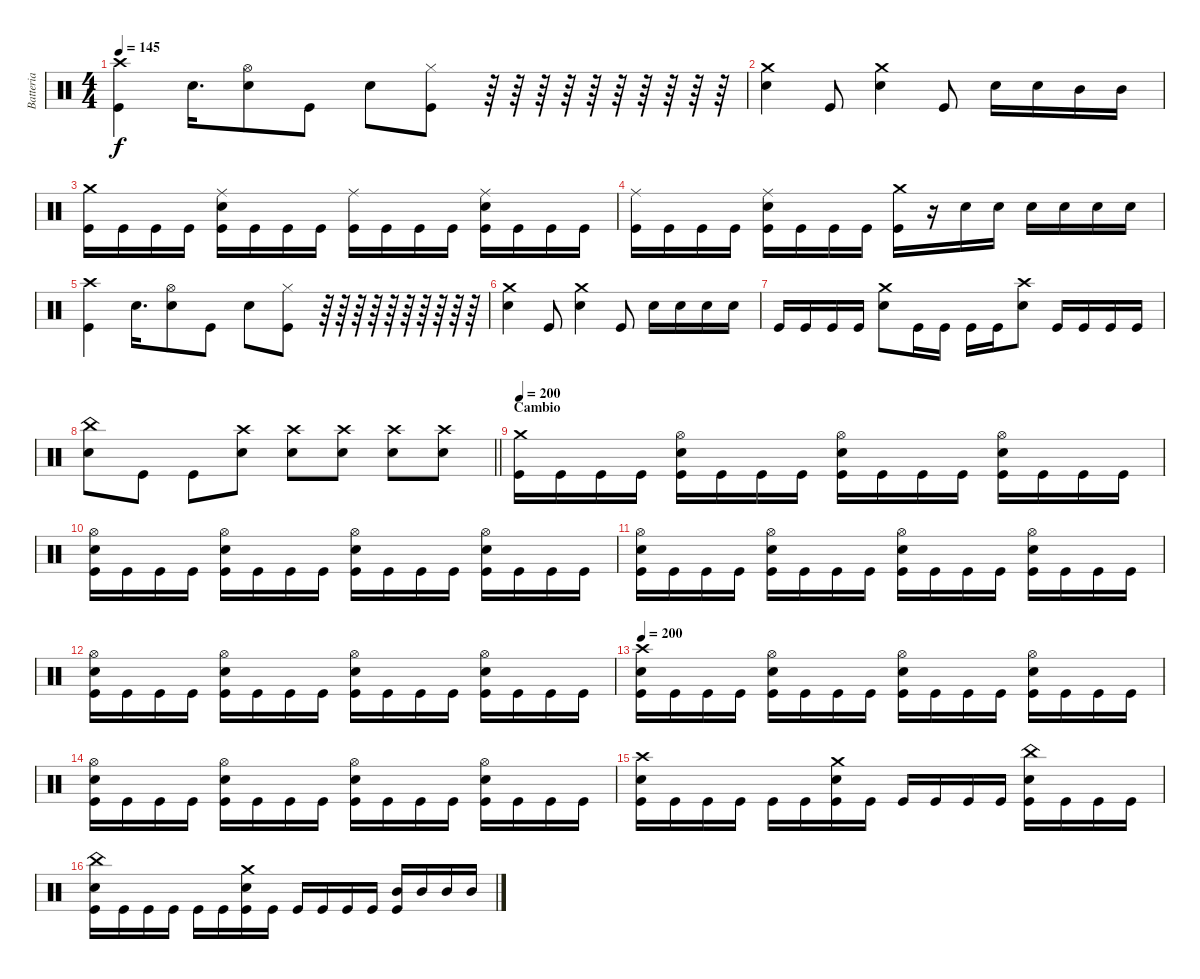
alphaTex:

\track ("Batteria" "Batteria") {instrument percussion}
\staff {score}
\articulation defaults
\ts (4 4)
\tempo 145
\clef neutral
\ks c
("Crash high (hit)" "Kick (hit)").4{dy f} "Electric Snare (hit)".16{d} ("Hi-Hat (open)" "Electric Snare (hit)").8 "Kick (hit)".8 "Electric Snare (hit)".8 ("Hi-Hat (closed)" "Kick (hit)").8 r.64 r.64 r.64 r.64 r.64 r.64 r.64 r.64 r.64 r.64 |
("Crash medium (hit)" "Electric Snare (hit)").4 "Kick (hit)".8 ("Crash medium (hit)" "Electric Snare (hit)").4 "Kick (hit)".8 "Electric Snare (hit)".16 "Electric Snare (hit)".16 "Mid Tom (hit)".16 "Mid Tom (hit)".16 |
("Crash medium (hit)" "Kick (hit)").16 "Kick (hit)".16 "Kick (hit)".16 "Kick (hit)".16 ("Ride (middle)" "Electric Snare (hit)" "Kick (hit)").16 "Kick (hit)".16 "Kick (hit)".16 "Kick (hit)".16 ("Ride (middle)" "Kick (hit)").16 "Kick (hit)".16 "Kick (hit)".16 "Kick (hit)".16 ("Ride (middle)" "Electric Snare (hit)" "Kick (hit)").16 "Kick (hit)".16 "Kick (hit)".16 "Kick (hit)".16 |
("Ride (middle)" "Kick (hit)").16 "Kick (hit)".16 "Kick (hit)".16 "Kick (hit)".16 ("Ride (middle)" "Electric Snare (hit)" "Kick (hit)").16 "Kick (hit)".16 "Kick (hit)".16 "Kick (hit)".16 ("Crash medium (hit)" "Kick (hit)").16 r.16 "Electric Snare (hit)".16 "Electric Snare (hit)".16 "Electric Snare (hit)".16 "Electric Snare (hit)".16 "Electric Snare (hit)".16 "Electric Snare (hit)".16 |
("Crash high (hit)" "Kick (hit)").4 "Electric Snare (hit)".16{d} ("Hi-Hat (open)" "Electric Snare (hit)").8 "Kick (hit)".8 "Electric Snare (hit)".8 ("Hi-Hat (closed)" "Kick (hit)").8 r.64 r.64 r.64 r.64 r.64 r.64 r.64 r.64 r.64 r.64 |
("Crash medium (hit)" "Electric Snare (hit)").4 "Kick (hit)".8 ("Crash medium (hit)" "Electric Snare (hit)").4 "Kick (hit)".8 "Electric Snare (hit)".16 "Electric Snare (hit)".16 "Electric Snare (hit)".16 "Electric Snare (hit)".16 |
"Kick (hit)".16 "Kick (hit)".16 "Kick (hit)".16 "Kick (hit)".16 ("Crash medium (hit)" "Electric Snare (hit)").8 "Kick (hit)".16 "Kick (hit)".16 "Kick (hit)".16 "Kick (hit)".16 ("Crash high (hit)" "Electric Snare (hit)").8 "Kick (hit)".16 "Kick (hit)".16 "Kick (hit)".16 "Kick (hit)".16 |
\barLineRight lightlight
("China (hit)" "Electric Snare (hit)").8 "Kick (hit)".8 "Kick (hit)".8 ("Crash high (hit)" "Electric Snare (hit)").8 ("Crash high (hit)" "Electric Snare (hit)").8 ("Crash high (hit)" "Electric Snare (hit)").8 ("Crash high (hit)" "Electric Snare (hit)").8 ("Crash high (hit)" "Electric Snare (hit)").8 |
\section ("" "Cambio")
\tempo 200
("Crash medium (hit)" "Kick (hit)").16 "Kick (hit)".16 "Kick (hit)".16 "Kick (hit)".16 ("Hi-Hat (open)" "Electric Snare (hit)" "Kick (hit)").16 "Kick (hit)".16 "Kick (hit)".16 "Kick (hit)".16 ("Hi-Hat (open)" "Electric Snare (hit)" "Kick (hit)").16 "Kick (hit)".16 "Kick (hit)".16 "Kick (hit)".16 ("Hi-Hat (open)" "Electric Snare (hit)" "Kick (hit)").16 "Kick (hit)".16 "Kick (hit)".16 "Kick (hit)".16 |
("Hi-Hat (open)" "Electric Snare (hit)" "Kick (hit)").16 "Kick (hit)".16 "Kick (hit)".16 "Kick (hit)".16 ("Hi-Hat (open)" "Electric Snare (hit)" "Kick (hit)").16 "Kick (hit)".16 "Kick (hit)".16 "Kick (hit)".16 ("Hi-Hat (open)" "Electric Snare (hit)" "Kick (hit)").16 "Kick (hit)".16 "Kick (hit)".16 "Kick (hit)".16 ("Hi-Hat (open)" "Electric Snare (hit)" "Kick (hit)").16 "Kick (hit)".16 "Kick (hit)".16 "Kick (hit)".16 |
("Hi-Hat (open)" "Electric Snare (hit)" "Kick (hit)").16 "Kick (hit)".16 "Kick (hit)".16 "Kick (hit)".16 ("Hi-Hat (open)" "Electric Snare (hit)" "Kick (hit)").16 "Kick (hit)".16 "Kick (hit)".16 "Kick (hit)".16 ("Hi-Hat (open)" "Electric Snare (hit)" "Kick (hit)").16 "Kick (hit)".16 "Kick (hit)".16 "Kick (hit)".16 ("Hi-Hat (open)" "Electric Snare (hit)" "Kick (hit)").16 "Kick (hit)".16 "Kick (hit)".16 "Kick (hit)".16 |
("Hi-Hat (open)" "Electric Snare (hit)" "Kick (hit)").16 "Kick (hit)".16 "Kick (hit)".16 "Kick (hit)".16 ("Hi-Hat (open)" "Electric Snare (hit)" "Kick (hit)").16 "Kick (hit)".16 "Kick (hit)".16 "Kick (hit)".16 ("Hi-Hat (open)" "Electric Snare (hit)" "Kick (hit)").16 "Kick (hit)".16 "Kick (hit)".16 "Kick (hit)".16 ("Hi-Hat (open)" "Electric Snare (hit)" "Kick (hit)").16 "Kick (hit)".16 "Kick (hit)".16 "Kick (hit)".16 |
\tempo 200
("Crash high (hit)" "Electric Snare (hit)" "Kick (hit)").16 "Kick (hit)".16 "Kick (hit)".16 "Kick (hit)".16 ("Hi-Hat (open)" "Electric Snare (hit)" "Kick (hit)").16 "Kick (hit)".16 "Kick (hit)".16 "Kick (hit)".16 ("Hi-Hat (open)" "Electric Snare (hit)" "Kick (hit)").16 "Kick (hit)".16 "Kick (hit)".16 "Kick (hit)".16 ("Hi-Hat (open)" "Electric Snare (hit)" "Kick (hit)").16 "Kick (hit)".16 "Kick (hit)".16 "Kick (hit)".16 |
("Hi-Hat (open)" "Electric Snare (hit)" "Kick (hit)").16 "Kick (hit)".16 "Kick (hit)".16 "Kick (hit)".16 ("Hi-Hat (open)" "Electric Snare (hit)" "Kick (hit)").16 "Kick (hit)".16 "Kick (hit)".16 "Kick (hit)".16 ("Hi-Hat (open)" "Electric Snare (hit)" "Kick (hit)").16 "Kick (hit)".16 "Kick (hit)".16 "Kick (hit)".16 ("Hi-Hat (open)" "Electric Snare (hit)" "Kick (hit)").16 "Kick (hit)".16 "Kick (hit)".16 "Kick (hit)".16 |
("Crash high (hit)" "Electric Snare (hit)" "Kick (hit)").16 "Kick (hit)".16 "Kick (hit)".16 "Kick (hit)".16 "Kick (hit)".16 "Kick (hit)".16 ("Crash medium (hit)" "Electric Snare (hit)" "Kick (hit)").16 "Kick (hit)".16 "Kick (hit)".16 "Kick (hit)".16 "Kick (hit)".16 "Kick (hit)".16 ("China (hit)" "Electric Snare (hit)" "Kick (hit)").16 "Kick (hit)".16 "Kick (hit)".16 "Kick (hit)".16 |
("China (hit)" "Electric Snare (hit)" "Kick (hit)").16 "Kick (hit)".16 "Kick (hit)".16 "Kick (hit)".16 "Kick (hit)".16 "Kick (hit)".16 ("Crash medium (hit)" "Electric Snare (hit)" "Kick (hit)").16 "Kick (hit)".16 "Kick (hit)".16 "Kick (hit)".16 "Kick (hit)".16 "Kick (hit)".16 ("Mid Tom (hit)" "Kick (hit)").16 "Mid Tom (hit)".16 "Mid Tom (hit)".16 "Mid Tom (hit)".16
